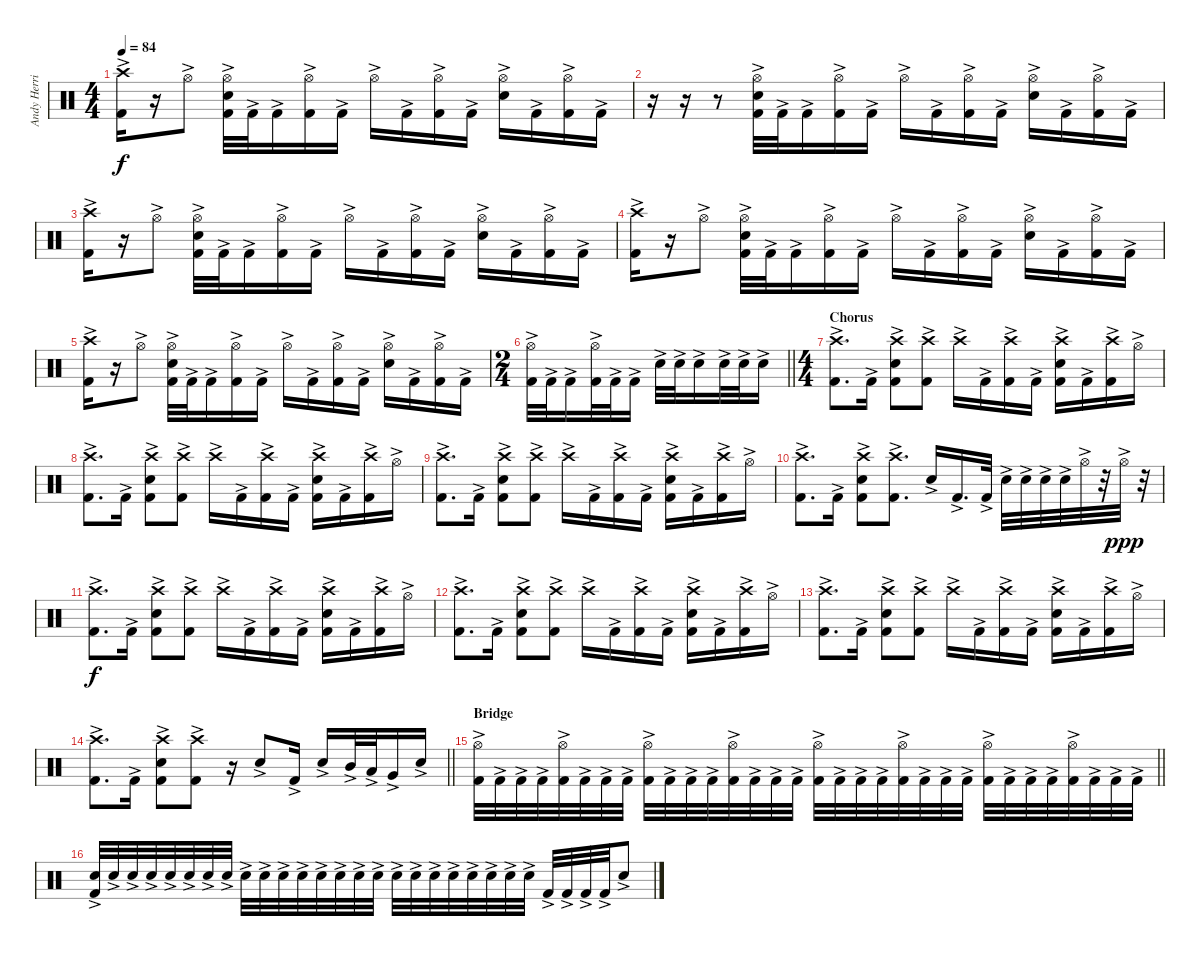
\track ("Andy Herrick" "Andy Herri") {instrument percussion}
\staff {score}
\articulation defaults
\ts (4 4)
\tempo 84
\clef neutral
\ks c
("Crash high (hit)"{ac} "Kick (hit) 2"{ac}).16{dy f} r.16 "Hi-Hat (open)"{ac}.8 ("Hi-Hat (open)"{ac} "Electric Snare (hit)"{ac} "Kick (hit) 2"{ac}).32 "Kick (hit) 2"{ac}.32 "Kick (hit) 2"{ac}.16 ("Hi-Hat (open)"{ac} "Kick (hit) 2"{ac}).16 "Kick (hit) 2"{ac}.16 "Hi-Hat (open)"{ac}.16 "Kick (hit) 2"{ac}.16 ("Hi-Hat (open)"{ac} "Kick (hit) 2"{ac}).16 "Kick (hit) 2"{ac}.16 ("Hi-Hat (open)"{ac} "Electric Snare (hit)"{ac}).16 "Kick (hit) 2"{ac}.16 ("Hi-Hat (open)"{ac} "Kick (hit) 2"{ac}).16 "Kick (hit) 2"{ac}.16 |
r.16 r.16 r.8 ("Hi-Hat (open)"{ac} "Electric Snare (hit)"{ac} "Kick (hit) 2"{ac}).32 "Kick (hit) 2"{ac}.32 "Kick (hit) 2"{ac}.16 ("Hi-Hat (open)"{ac} "Kick (hit) 2"{ac}).16 "Kick (hit) 2"{ac}.16 "Hi-Hat (open)"{ac}.16 "Kick (hit) 2"{ac}.16 ("Hi-Hat (open)"{ac} "Kick (hit) 2"{ac}).16 "Kick (hit) 2"{ac}.16 ("Hi-Hat (open)"{ac} "Electric Snare (hit)"{ac}).16 "Kick (hit) 2"{ac}.16 ("Hi-Hat (open)"{ac} "Kick (hit) 2"{ac}).16 "Kick (hit) 2"{ac}.16 |
("Crash high (hit)"{ac} "Kick (hit) 2"{ac}).16 r.16 "Hi-Hat (open)"{ac}.8 ("Hi-Hat (open)"{ac} "Electric Snare (hit)"{ac} "Kick (hit) 2"{ac}).32 "Kick (hit) 2"{ac}.32 "Kick (hit) 2"{ac}.16 ("Hi-Hat (open)"{ac} "Kick (hit) 2"{ac}).16 "Kick (hit) 2"{ac}.16 "Hi-Hat (open)"{ac}.16 "Kick (hit) 2"{ac}.16 ("Hi-Hat (open)"{ac} "Kick (hit) 2"{ac}).16 "Kick (hit) 2"{ac}.16 ("Hi-Hat (open)"{ac} "Electric Snare (hit)"{ac}).16 "Kick (hit) 2"{ac}.16 ("Hi-Hat (open)"{ac} "Kick (hit) 2"{ac}).16 "Kick (hit) 2"{ac}.16 |
("Crash high (hit)"{ac} "Kick (hit) 2"{ac}).16 r.16 "Hi-Hat (open)"{ac}.8 ("Hi-Hat (open)"{ac} "Electric Snare (hit)"{ac} "Kick (hit) 2"{ac}).32 "Kick (hit) 2"{ac}.32 "Kick (hit) 2"{ac}.16 ("Hi-Hat (open)"{ac} "Kick (hit) 2"{ac}).16 "Kick (hit) 2"{ac}.16 "Hi-Hat (open)"{ac}.16 "Kick (hit) 2"{ac}.16 ("Hi-Hat (open)"{ac} "Kick (hit) 2"{ac}).16 "Kick (hit) 2"{ac}.16 ("Hi-Hat (open)"{ac} "Electric Snare (hit)"{ac}).16 "Kick (hit) 2"{ac}.16 ("Hi-Hat (open)"{ac} "Kick (hit) 2"{ac}).16 "Kick (hit) 2"{ac}.16 |
("Crash high (hit)"{ac} "Kick (hit) 2"{ac}).16 r.16 "Hi-Hat (open)"{ac}.8 ("Hi-Hat (open)"{ac} "Electric Snare (hit)"{ac} "Kick (hit) 2"{ac}).32 "Kick (hit) 2"{ac}.32 "Kick (hit) 2"{ac}.16 ("Hi-Hat (open)"{ac} "Kick (hit) 2"{ac}).16 "Kick (hit) 2"{ac}.16 "Hi-Hat (open)"{ac}.16 "Kick (hit) 2"{ac}.16 ("Hi-Hat (open)"{ac} "Kick (hit) 2"{ac}).16 "Kick (hit) 2"{ac}.16 ("Hi-Hat (open)"{ac} "Electric Snare (hit)"{ac}).16 "Kick (hit) 2"{ac}.16 ("Hi-Hat (open)"{ac} "Kick (hit) 2"{ac}).16 "Kick (hit) 2"{ac}.16 |
\ts (2 4)
\barLineRight lightlight
("Hi-Hat (open)"{ac} "Kick (hit) 2"{ac}).32 "Kick (hit) 2"{ac}.32 "Kick (hit) 2"{ac}.16 ("Hi-Hat (open)"{ac} "Kick (hit) 2"{ac}).32 "Kick (hit) 2"{ac}.32 "Kick (hit) 2"{ac}.16 "Electric Snare (hit)"{ac}.32 "Electric Snare (hit)"{ac}.32 "Electric Snare (hit)"{ac}.16 "Electric Snare (hit)"{ac}.32 "Electric Snare (hit)"{ac}.32 "Electric Snare (hit)"{ac}.16 |
\ts (4 4)
\section ("" "Chorus")
("Crash high (hit)"{ac} "Kick (hit) 2"{ac}).8{d} "Kick (hit) 2"{ac}.16 ("Crash high (hit)"{ac} "Electric Snare (hit)"{ac} "Kick (hit) 2"{ac}).8 ("Crash high (hit)"{ac} "Kick (hit) 2"{ac}).8 "Crash high (hit)"{ac}.16 "Kick (hit) 2"{ac}.16 ("Crash high (hit)"{ac} "Kick (hit) 2"{ac}).16 "Kick (hit) 2"{ac}.16 ("Crash high (hit)"{ac} "Electric Snare (hit)"{ac} "Kick (hit) 2"{ac}).16 "Kick (hit) 2"{ac}.16 ("Crash high (hit)"{ac} "Kick (hit) 2"{ac}).16 "Hi-Hat (open)"{ac}.16 |
("Crash high (hit)"{ac} "Kick (hit) 2"{ac}).8{d} "Kick (hit) 2"{ac}.16 ("Crash high (hit)"{ac} "Electric Snare (hit)"{ac} "Kick (hit) 2"{ac}).8 ("Crash high (hit)"{ac} "Kick (hit) 2"{ac}).8 "Crash high (hit)"{ac}.16 "Kick (hit) 2"{ac}.16 ("Crash high (hit)"{ac} "Kick (hit) 2"{ac}).16 "Kick (hit) 2"{ac}.16 ("Crash high (hit)"{ac} "Electric Snare (hit)"{ac} "Kick (hit) 2"{ac}).16 "Kick (hit) 2"{ac}.16 ("Crash high (hit)"{ac} "Kick (hit) 2"{ac}).16 "Hi-Hat (open)"{ac}.16 |
("Crash high (hit)"{ac} "Kick (hit) 2"{ac}).8{d} "Kick (hit) 2"{ac}.16 ("Crash high (hit)"{ac} "Electric Snare (hit)"{ac} "Kick (hit) 2"{ac}).8 ("Crash high (hit)"{ac} "Kick (hit) 2"{ac}).8 "Crash high (hit)"{ac}.16 "Kick (hit) 2"{ac}.16 ("Crash high (hit)"{ac} "Kick (hit) 2"{ac}).16 "Kick (hit) 2"{ac}.16 ("Crash high (hit)"{ac} "Electric Snare (hit)"{ac} "Kick (hit) 2"{ac}).16 "Kick (hit) 2"{ac}.16 ("Crash high (hit)"{ac} "Kick (hit) 2"{ac}).16 "Hi-Hat (open)"{ac}.16 |
("Crash high (hit)"{ac} "Kick (hit) 2"{ac}).8{d} "Kick (hit) 2"{ac}.16 ("Crash high (hit)"{ac} "Electric Snare (hit)"{ac} "Kick (hit) 2"{ac}).8 ("Crash high (hit)"{ac} "Kick (hit) 2"{ac}).8{d} "Electric Snare (hit)"{ac}.16 "Kick (hit) 2"{ac}.16{d} "Kick (hit) 2"{ac}.32 "Electric Snare (hit)"{ac}.32 "Electric Snare (hit)"{ac}.32 "Electric Snare (hit)"{ac}.32 "Electric Snare (hit)"{ac}.32 "Hi-Hat (open)"{ac}.32 r.32 "Hi-Hat (open)"{ac}.32{dy ppp} r.32 |
("Crash high (hit)"{ac} "Kick (hit) 2"{ac}).8{d dy f} "Kick (hit) 2"{ac}.16 ("Crash high (hit)"{ac} "Electric Snare (hit)"{ac} "Kick (hit) 2"{ac}).8 ("Crash high (hit)"{ac} "Kick (hit) 2"{ac}).8 "Crash high (hit)"{ac}.16 "Kick (hit) 2"{ac}.16 ("Crash high (hit)"{ac} "Kick (hit) 2"{ac}).16 "Kick (hit) 2"{ac}.16 ("Crash high (hit)"{ac} "Electric Snare (hit)"{ac} "Kick (hit) 2"{ac}).16 "Kick (hit) 2"{ac}.16 ("Crash high (hit)"{ac} "Kick (hit) 2"{ac}).16 "Hi-Hat (open)"{ac}.16 |
("Crash high (hit)"{ac} "Kick (hit) 2"{ac}).8{d} "Kick (hit) 2"{ac}.16 ("Crash high (hit)"{ac} "Electric Snare (hit)"{ac} "Kick (hit) 2"{ac}).8 ("Crash high (hit)"{ac} "Kick (hit) 2"{ac}).8 "Crash high (hit)"{ac}.16 "Kick (hit) 2"{ac}.16 ("Crash high (hit)"{ac} "Kick (hit) 2"{ac}).16 "Kick (hit) 2"{ac}.16 ("Crash high (hit)"{ac} "Electric Snare (hit)"{ac} "Kick (hit) 2"{ac}).16 "Kick (hit) 2"{ac}.16 ("Crash high (hit)"{ac} "Kick (hit) 2"{ac}).16 "Hi-Hat (open)"{ac}.16 |
("Crash high (hit)"{ac} "Kick (hit) 2"{ac}).8{d} "Kick (hit) 2"{ac}.16 ("Crash high (hit)"{ac} "Electric Snare (hit)"{ac} "Kick (hit) 2"{ac}).8 ("Crash high (hit)"{ac} "Kick (hit) 2"{ac}).8 "Crash high (hit)"{ac}.16 "Kick (hit) 2"{ac}.16 ("Crash high (hit)"{ac} "Kick (hit) 2"{ac}).16 "Kick (hit) 2"{ac}.16 ("Crash high (hit)"{ac} "Electric Snare (hit)"{ac} "Kick (hit) 2"{ac}).16 "Kick (hit) 2"{ac}.16 ("Crash high (hit)"{ac} "Kick (hit) 2"{ac}).16 "Hi-Hat (open)"{ac}.16 |
\barLineRight lightlight
("Crash high (hit)"{ac} "Kick (hit) 2"{ac}).8{d} "Kick (hit) 2"{ac}.16 ("Crash high (hit)"{ac} "Electric Snare (hit)"{ac} "Kick (hit) 2"{ac}).8 ("Crash high (hit)"{ac} "Kick (hit) 2"{ac}).8 r.16 "Electric Snare (hit)"{ac}.8 "Kick (hit) 2"{ac}.16 "Electric Snare (hit)"{ac}.16 "Mid Tom (hit)"{ac}.32 "Low Tom (hit)"{ac}.32 "Very Low Tom (hit)"{ac}.16 "Electric Snare (hit)"{ac}.16 |
\section ("" "Bridge")
\barLineRight lightlight
("Hi-Hat (open)"{ac} "Kick (hit) 2"{ac}).32 "Kick (hit) 2"{ac}.32 "Kick (hit) 2"{ac}.32 "Kick (hit) 2"{ac}.32 ("Hi-Hat (open)"{ac} "Kick (hit) 2"{ac}).32 "Kick (hit) 2"{ac}.32 "Kick (hit) 2"{ac}.32 "Kick (hit) 2"{ac}.32 ("Hi-Hat (open)"{ac} "Kick (hit) 2"{ac}).32 "Kick (hit) 2"{ac}.32 "Kick (hit) 2"{ac}.32 "Kick (hit) 2"{ac}.32 ("Hi-Hat (open)"{ac} "Kick (hit) 2"{ac}).32 "Kick (hit) 2"{ac}.32 "Kick (hit) 2"{ac}.32 "Kick (hit) 2"{ac}.32 ("Hi-Hat (open)"{ac} "Kick (hit) 2"{ac}).32 "Kick (hit) 2"{ac}.32 "Kick (hit) 2"{ac}.32 "Kick (hit) 2"{ac}.32 ("Hi-Hat (open)"{ac} "Kick (hit) 2"{ac}).32 "Kick (hit) 2"{ac}.32 "Kick (hit) 2"{ac}.32 "Kick (hit) 2"{ac}.32 ("Hi-Hat (open)"{ac} "Kick (hit) 2"{ac}).32 "Kick (hit) 2"{ac}.32 "Kick (hit) 2"{ac}.32 "Kick (hit) 2"{ac}.32 ("Hi-Hat (open)"{ac} "Kick (hit) 2"{ac}).32 "Kick (hit) 2"{ac}.32 "Kick (hit) 2"{ac}.32 "Kick (hit) 2"{ac}.32{volume 4} |
("Electric Snare (hit)"{ac} "Kick (hit) 2"{ac}).32{volume 16} "Electric Snare (hit)"{ac}.32 "Electric Snare (hit)"{ac}.32 "Electric Snare (hit)"{ac}.32 "Electric Snare (hit)"{ac}.32 "Electric Snare (hit)"{ac}.32 "Electric Snare (hit)"{ac}.32 "Electric Snare (hit)"{ac}.32 "Electric Snare (hit)"{ac}.32 "Electric Snare (hit)"{ac}.32 "Electric Snare (hit)"{ac}.32 "Electric Snare (hit)"{ac}.32 "Electric Snare (hit)"{ac}.32 "Electric Snare (hit)"{ac}.32 "Electric Snare (hit)"{ac}.32 "Electric Snare (hit)"{ac}.32 "Electric Snare (hit)"{ac}.32 "Electric Snare (hit)"{ac}.32 "Electric Snare (hit)"{ac}.32 "Electric Snare (hit)"{ac}.32 "Electric Snare (hit)"{ac}.32 "Electric Snare (hit)"{ac}.32 "Electric Snare (hit)"{ac}.32 "Electric Snare (hit)"{ac}.32 "Kick (hit) 2"{ac}.32 "Kick (hit) 2"{ac}.32 "Kick (hit) 2"{ac}.32 "Kick (hit) 2"{ac}.32 "Electric Snare (hit)"{ac}.8
